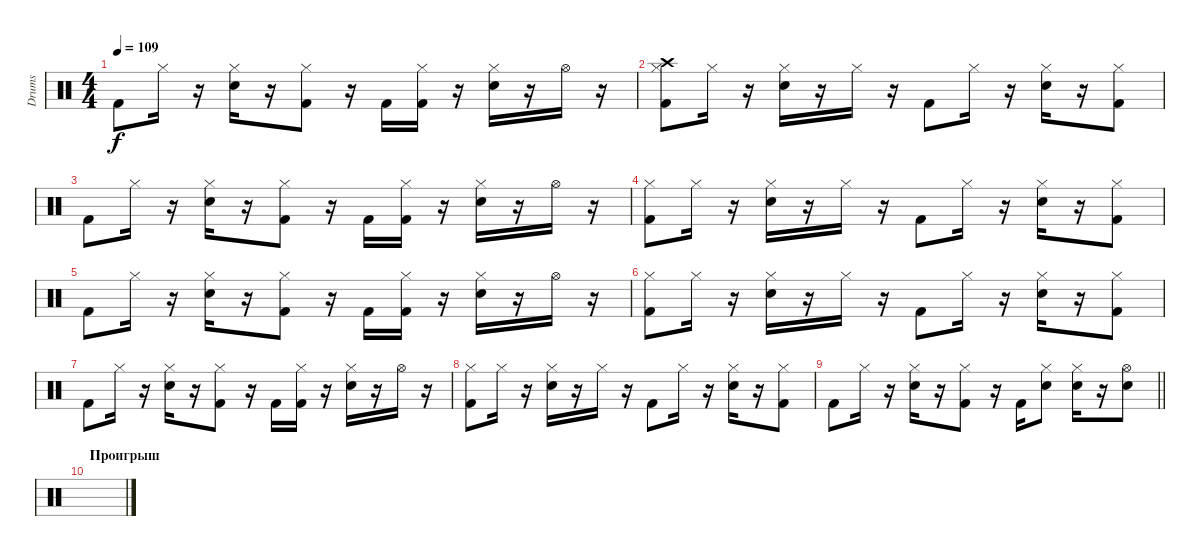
\track ("Drums" "Drums") {instrument percussion}
\staff {score}
\articulation defaults
\ts (4 4)
\tempo 109
\clef neutral
\ks c "Kick (hit) 2".8{dy f} "Hi-Hat (closed)".16
r.16 ("Hi-Hat (closed)" "Snare (hit) 2").16 r.16 ("Kick (hit) 2" "Hi-Hat (closed)").8 r.16 "Kick (hit) 2".16 ("Hi-Hat (closed)" "Kick (hit) 2").16 r.16 ("Hi-Hat (closed)" "Snare (hit) 2").16 r.16 "Hi-Hat (open)".16 r.16 |
("Kick (hit) 2" "Hi-Hat (closed)" "Crash high (hit)").8 "Hi-Hat (closed)".16 r.16 ("Snare (hit) 2" "Hi-Hat (closed)").16 r.16 "Hi-Hat (closed)".16 r.16 "Kick (hit) 2".8 "Hi-Hat (closed)".16 r.16 ("Snare (hit) 2" "Hi-Hat (closed)").16 r.16 ("Hi-Hat (closed)" "Kick (hit) 2").8 |
"Kick (hit) 2".8 "Hi-Hat (closed)".16 r.16 ("Snare (hit) 2" "Hi-Hat (closed)").16 r.16 ("Kick (hit) 2" "Hi-Hat (closed)").8 r.16 "Kick (hit) 2".16 ("Hi-Hat (closed)" "Kick (hit) 2").16 r.16 ("Snare (hit) 2" "Hi-Hat (closed)").16 r.16 "Hi-Hat (open)".16 r.16 |
("Hi-Hat (closed)" "Kick (hit) 2").8 "Hi-Hat (closed)".16 r.16 ("Hi-Hat (closed)" "Snare (hit) 2").16 r.16 "Hi-Hat (closed)".16 r.16 "Kick (hit) 2".8 "Hi-Hat (closed)".16 r.16 ("Snare (hit) 2" "Hi-Hat (closed)").16 r.16 ("Kick (hit) 2" "Hi-Hat (closed)").8 |
"Kick (hit) 2".8 "Hi-Hat (closed)".16 r.16 ("Hi-Hat (closed)" "Snare (hit) 2").16 r.16 ("Hi-Hat (closed)" "Kick (hit) 2").8 r.16 "Kick (hit) 2".16 ("Kick (hit) 2" "Hi-Hat (closed)").16 r.16 ("Snare (hit) 2" "Hi-Hat (closed)").16 r.16 "Hi-Hat (open)".16 r.16 |
("Kick (hit) 2" "Hi-Hat (closed)").8 "Hi-Hat (closed)".16 r.16 ("Snare (hit) 2" "Hi-Hat (closed)").16 r.16 "Hi-Hat (closed)".16 r.16 "Kick (hit) 2".8 "Hi-Hat (closed)".16 r.16 ("Snare (hit) 2" "Hi-Hat (closed)").16 r.16 ("Kick (hit) 2" "Hi-Hat (closed)").8 |
"Kick (hit) 2".8 "Hi-Hat (closed)".16 r.16 ("Snare (hit) 2" "Hi-Hat (closed)").16 r.16 ("Kick (hit) 2" "Hi-Hat (closed)").8 r.16 "Kick (hit) 2".16 ("Kick (hit) 2" "Hi-Hat (closed)").16 r.16 ("Snare (hit) 2" "Hi-Hat (closed)").16 r.16 "Hi-Hat (open)".16 r.16 |
("Kick (hit) 2" "Hi-Hat (closed)").8 "Hi-Hat (closed)".16 r.16 ("Snare (hit) 2" "Hi-Hat (closed)").16 r.16 "Hi-Hat (closed)".16 r.16 "Kick (hit) 2".8 "Hi-Hat (closed)".16 r.16 ("Snare (hit) 2" "Hi-Hat (closed)").16 r.16 ("Kick (hit) 2" "Hi-Hat (closed)").8 |
\barLineRight lightlight "Kick (hit) 2".8 "Hi-Hat (closed)".16
r.16 ("Snare (hit) 2" "Hi-Hat (closed)").16 r.16 ("Kick (hit) 2" "Hi-Hat (closed)").8 r.16 "Kick (hit) 2".16 ("Snare (hit) 2" "Hi-Hat (closed)").8 ("Snare (hit) 2" "Hi-Hat (closed)").16 r.16 ("Snare (hit) 2" "Hi-Hat (open)").8 |
\section ("" "Проигрыш")
